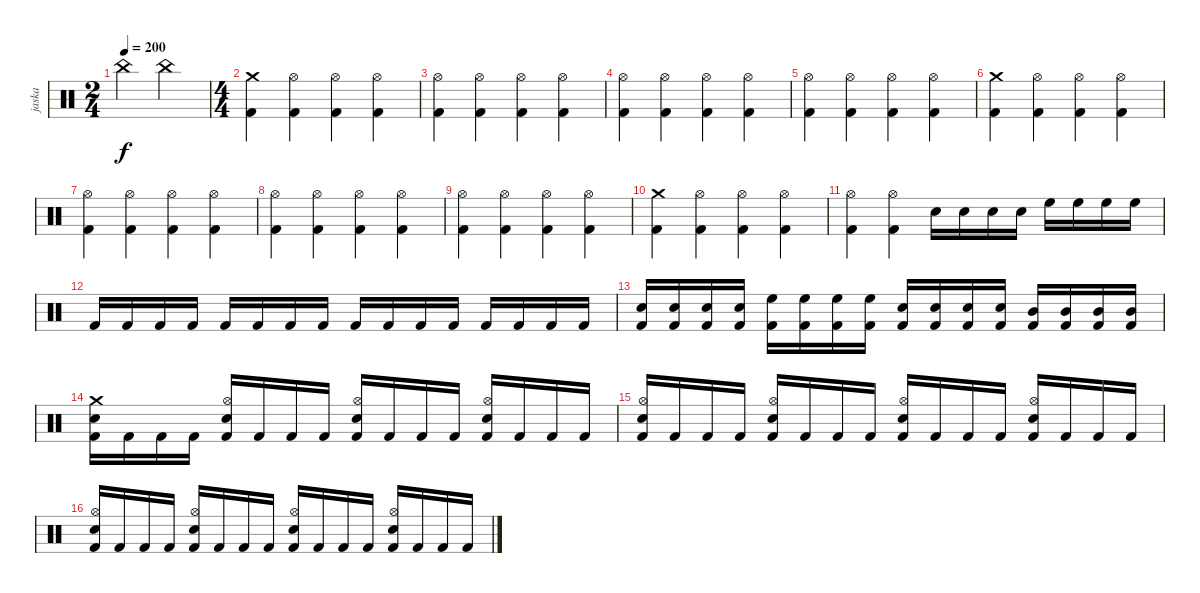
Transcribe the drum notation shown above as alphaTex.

\track ("jaska" "jaska") {instrument percussion}
\staff {score}
\articulation defaults
\ts (2 4)
\tempo 200
\clef neutral
\ks c "China (hit)".4{dy f} "China (hit)".4
|
\ts (4 4)
("Crash medium (hit)" "Kick (hit) 2").4 ("Hi-Hat (open)" "Kick (hit) 2").4 ("Hi-Hat (open)" "Kick (hit) 2").4 ("Hi-Hat (open)" "Kick (hit) 2").4 |
("Hi-Hat (open)" "Kick (hit) 2").4 ("Hi-Hat (open)" "Kick (hit) 2").4 ("Hi-Hat (open)" "Kick (hit) 2").4 ("Hi-Hat (open)" "Kick (hit) 2").4 |
("Hi-Hat (open)" "Kick (hit) 2").4 ("Hi-Hat (open)" "Kick (hit) 2").4 ("Hi-Hat (open)" "Kick (hit) 2").4 ("Hi-Hat (open)" "Kick (hit) 2").4 |
("Hi-Hat (open)" "Kick (hit) 2").4 ("Hi-Hat (open)" "Kick (hit) 2").4 ("Hi-Hat (open)" "Kick (hit) 2").4 ("Hi-Hat (open)" "Kick (hit) 2").4 |
("Crash medium (hit)" "Kick (hit) 2").4 ("Hi-Hat (open)" "Kick (hit) 2").4 ("Hi-Hat (open)" "Kick (hit) 2").4 ("Hi-Hat (open)" "Kick (hit) 2").4 |
("Hi-Hat (open)" "Kick (hit) 2").4 ("Hi-Hat (open)" "Kick (hit) 2").4 ("Hi-Hat (open)" "Kick (hit) 2").4 ("Hi-Hat (open)" "Kick (hit) 2").4 |
("Hi-Hat (open)" "Kick (hit) 2").4 ("Hi-Hat (open)" "Kick (hit) 2").4 ("Hi-Hat (open)" "Kick (hit) 2").4 ("Hi-Hat (open)" "Kick (hit) 2").4 |
("Hi-Hat (open)" "Kick (hit) 2").4 ("Hi-Hat (open)" "Kick (hit) 2").4 ("Hi-Hat (open)" "Kick (hit) 2").4 ("Hi-Hat (open)" "Kick (hit) 2").4 |
("Crash medium (hit)" "Kick (hit) 2").4 ("Hi-Hat (open)" "Kick (hit) 2").4 ("Hi-Hat (open)" "Kick (hit) 2").4 ("Hi-Hat (open)" "Kick (hit) 2").4 |
("Hi-Hat (open)" "Kick (hit) 2").4 ("Hi-Hat (open)" "Kick (hit) 2").4 "Snare (hit) 2".16 "Snare (hit) 2".16 "Snare (hit) 2".16 "Snare (hit) 2".16 "High Floor Tom (hit)".16 "High Floor Tom (hit)".16 "High Floor Tom (hit)".16 "High Floor Tom (hit)".16 |
"Kick (hit) 2".16 "Kick (hit) 2".16 "Kick (hit) 2".16 "Kick (hit) 2".16 "Kick (hit) 2".16 "Kick (hit) 2".16 "Kick (hit) 2".16 "Kick (hit) 2".16 "Kick (hit) 2".16 "Kick (hit) 2".16 "Kick (hit) 2".16 "Kick (hit) 2".16 "Kick (hit) 2".16 "Kick (hit) 2".16 "Kick (hit) 2".16 "Kick (hit) 2".16 |
("Snare (hit) 2" "Kick (hit) 2").16 ("Snare (hit) 2" "Kick (hit) 2").16 ("Snare (hit) 2" "Kick (hit) 2").16 ("Snare (hit) 2" "Kick (hit) 2").16 ("High Floor Tom (hit)" "Kick (hit) 2").16 ("High Floor Tom (hit)" "Kick (hit) 2").16 ("High Floor Tom (hit)" "Kick (hit) 2").16 ("High Floor Tom (hit)" "Kick (hit) 2").16 ("Snare (hit) 2" "Kick (hit) 2").16 ("Snare (hit) 2" "Kick (hit) 2").16 ("Snare (hit) 2" "Kick (hit) 2").16 ("Snare (hit) 2" "Kick (hit) 2").16 ("Mid Tom (hit)" "Kick (hit) 2").16 ("Mid Tom (hit)" "Kick (hit) 2").16 ("Mid Tom (hit)" "Kick (hit) 2").16 ("Mid Tom (hit)" "Kick (hit) 2").16 |
("Crash medium (hit)" "Snare (hit) 2" "Kick (hit) 2").16 "Kick (hit) 2".16 "Kick (hit) 2".16 "Kick (hit) 2".16 ("Hi-Hat (open)" "Snare (hit) 2" "Kick (hit) 2").16 "Kick (hit) 2".16 "Kick (hit) 2".16 "Kick (hit) 2".16 ("Hi-Hat (open)" "Snare (hit) 2" "Kick (hit) 2").16 "Kick (hit) 2".16 "Kick (hit) 2".16 "Kick (hit) 2".16 ("Hi-Hat (open)" "Snare (hit) 2" "Kick (hit) 2").16 "Kick (hit) 2".16 "Kick (hit) 2".16 "Kick (hit) 2".16 |
("Hi-Hat (open)" "Snare (hit) 2" "Kick (hit) 2").16 "Kick (hit) 2".16 "Kick (hit) 2".16 "Kick (hit) 2".16 ("Hi-Hat (open)" "Snare (hit) 2" "Kick (hit) 2").16 "Kick (hit) 2".16 "Kick (hit) 2".16 "Kick (hit) 2".16 ("Hi-Hat (open)" "Snare (hit) 2" "Kick (hit) 2").16 "Kick (hit) 2".16 "Kick (hit) 2".16 "Kick (hit) 2".16 ("Hi-Hat (open)" "Snare (hit) 2" "Kick (hit) 2").16 "Kick (hit) 2".16 "Kick (hit) 2".16 "Kick (hit) 2".16 |
("Hi-Hat (open)" "Snare (hit) 2" "Kick (hit) 2").16 "Kick (hit) 2".16 "Kick (hit) 2".16 "Kick (hit) 2".16 ("Hi-Hat (open)" "Snare (hit) 2" "Kick (hit) 2").16 "Kick (hit) 2".16 "Kick (hit) 2".16 "Kick (hit) 2".16 ("Hi-Hat (open)" "Snare (hit) 2" "Kick (hit) 2").16 "Kick (hit) 2".16 "Kick (hit) 2".16 "Kick (hit) 2".16 ("Hi-Hat (open)" "Snare (hit) 2" "Kick (hit) 2").16 "Kick (hit) 2".16 "Kick (hit) 2".16 "Kick (hit) 2".16
